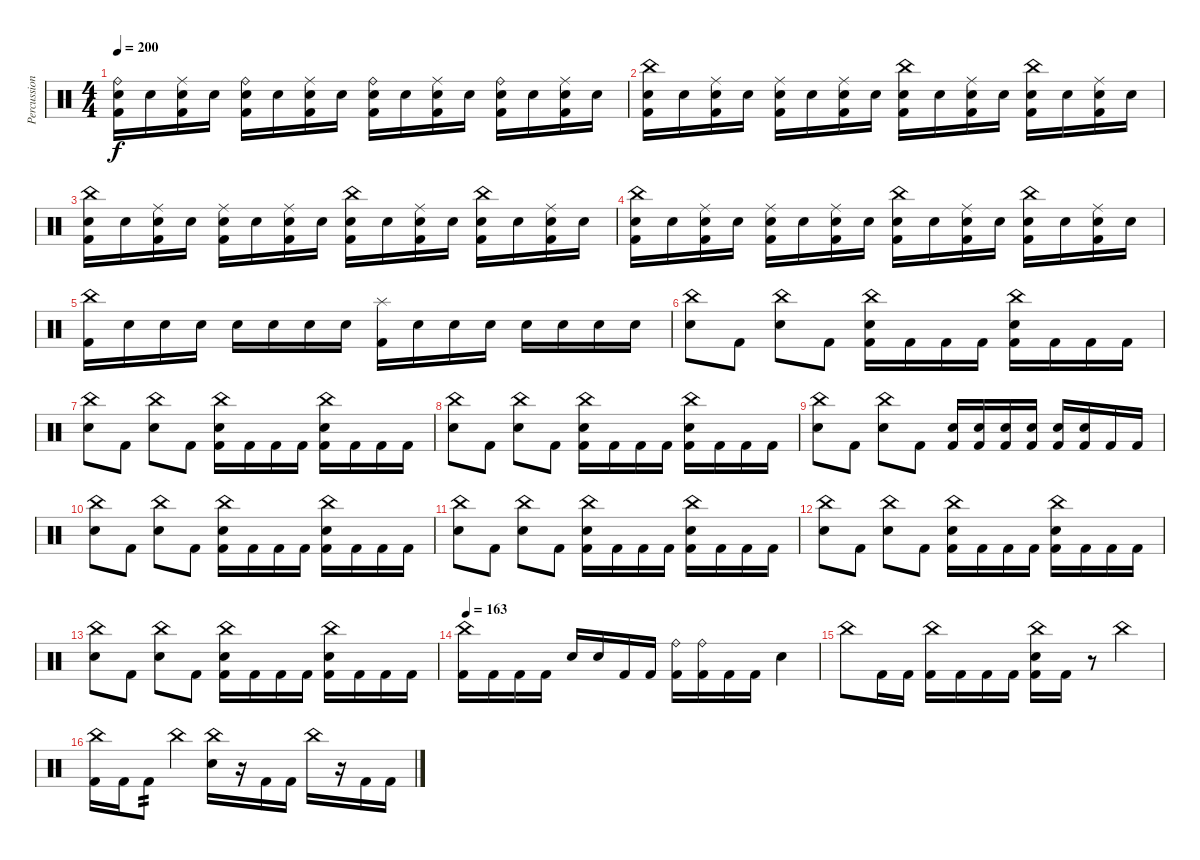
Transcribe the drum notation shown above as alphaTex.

\track ("Percussion" "Percussion") {instrument percussion}
\staff {score}
\articulation defaults
\ts (4 4)
\tempo 200
\clef neutral
\ks c
("Ride (bell)" "Electric Snare (hit)" "Kick (hit) 2").16{dy f} "Electric Snare (hit)".16 ("Ride (middle)" "Electric Snare (hit)" "Kick (hit) 2").16 "Electric Snare (hit)".16 ("Ride (bell)" "Electric Snare (hit)" "Kick (hit) 2").16 "Electric Snare (hit)".16 ("Ride (middle)" "Electric Snare (hit)" "Kick (hit) 2").16 "Electric Snare (hit)".16 ("Ride (bell)" "Electric Snare (hit)" "Kick (hit) 2").16 "Electric Snare (hit)".16 ("Ride (middle)" "Electric Snare (hit)" "Kick (hit) 2").16 "Electric Snare (hit)".16 ("Ride (bell)" "Electric Snare (hit)" "Kick (hit) 2").16 "Electric Snare (hit)".16 ("Ride (middle)" "Electric Snare (hit)" "Kick (hit) 2").16 "Electric Snare (hit)".16 |
("China (hit)" "Electric Snare (hit)" "Kick (hit) 2").16 "Electric Snare (hit)".16 ("Ride (middle)" "Electric Snare (hit)" "Kick (hit) 2").16 "Electric Snare (hit)".16 ("Ride (middle)" "Electric Snare (hit)" "Kick (hit) 2").16 "Electric Snare (hit)".16 ("Ride (middle)" "Electric Snare (hit)" "Kick (hit) 2").16 "Electric Snare (hit)".16 ("China (hit)" "Electric Snare (hit)" "Kick (hit) 2").16 "Electric Snare (hit)".16 ("Ride (middle)" "Electric Snare (hit)" "Kick (hit) 2").16 "Electric Snare (hit)".16 ("China (hit)" "Electric Snare (hit)" "Kick (hit) 2").16 "Electric Snare (hit)".16 ("Ride (middle)" "Electric Snare (hit)" "Kick (hit) 2").16 "Electric Snare (hit)".16 |
("China (hit)" "Electric Snare (hit)" "Kick (hit) 2").16 "Electric Snare (hit)".16 ("Ride (middle)" "Electric Snare (hit)" "Kick (hit) 2").16 "Electric Snare (hit)".16 ("Ride (middle)" "Electric Snare (hit)" "Kick (hit) 2").16 "Electric Snare (hit)".16 ("Ride (middle)" "Electric Snare (hit)" "Kick (hit) 2").16 "Electric Snare (hit)".16 ("China (hit)" "Electric Snare (hit)" "Kick (hit) 2").16 "Electric Snare (hit)".16 ("Ride (middle)" "Electric Snare (hit)" "Kick (hit) 2").16 "Electric Snare (hit)".16 ("China (hit)" "Electric Snare (hit)" "Kick (hit) 2").16 "Electric Snare (hit)".16 ("Ride (middle)" "Electric Snare (hit)" "Kick (hit) 2").16 "Electric Snare (hit)".16 |
("China (hit)" "Electric Snare (hit)" "Kick (hit) 2").16 "Electric Snare (hit)".16 ("Ride (middle)" "Electric Snare (hit)" "Kick (hit) 2").16 "Electric Snare (hit)".16 ("Ride (middle)" "Electric Snare (hit)" "Kick (hit) 2").16 "Electric Snare (hit)".16 ("Ride (middle)" "Electric Snare (hit)" "Kick (hit) 2").16 "Electric Snare (hit)".16 ("China (hit)" "Electric Snare (hit)" "Kick (hit) 2").16 "Electric Snare (hit)".16 ("Ride (middle)" "Electric Snare (hit)" "Kick (hit) 2").16 "Electric Snare (hit)".16 ("China (hit)" "Electric Snare (hit)" "Kick (hit) 2").16 "Electric Snare (hit)".16 ("Ride (middle)" "Electric Snare (hit)" "Kick (hit) 2").16 "Electric Snare (hit)".16 |
("China (hit)" "Kick (hit) 2").16 "Electric Snare (hit)".16 "Electric Snare (hit)".16 "Electric Snare (hit)".16 "Electric Snare (hit)".16 "Electric Snare (hit)".16 "Electric Snare (hit)".16 "Electric Snare (hit)".16 ("Splash (hit)" "Kick (hit) 2").16 "Electric Snare (hit)".16 "Electric Snare (hit)".16 "Electric Snare (hit)".16 "Electric Snare (hit)".16 "Electric Snare (hit)".16 "Electric Snare (hit)".16 "Electric Snare (hit)".16 |
("China (hit)" "Electric Snare (hit)").8 "Kick (hit) 2".8 ("China (hit)" "Electric Snare (hit)").8 "Kick (hit) 2".8 ("China (hit)" "Electric Snare (hit)" "Kick (hit) 2").16 "Kick (hit) 2".16 "Kick (hit) 2".16 "Kick (hit) 2".16 ("China (hit)" "Electric Snare (hit)" "Kick (hit) 2").16 "Kick (hit) 2".16 "Kick (hit) 2".16 "Kick (hit) 2".16 |
("China (hit)" "Electric Snare (hit)").8 "Kick (hit) 2".8 ("China (hit)" "Electric Snare (hit)").8 "Kick (hit) 2".8 ("China (hit)" "Electric Snare (hit)" "Kick (hit) 2").16 "Kick (hit) 2".16 "Kick (hit) 2".16 "Kick (hit) 2".16 ("China (hit)" "Electric Snare (hit)" "Kick (hit) 2").16 "Kick (hit) 2".16 "Kick (hit) 2".16 "Kick (hit) 2".16 |
("China (hit)" "Electric Snare (hit)").8 "Kick (hit) 2".8 ("China (hit)" "Electric Snare (hit)").8 "Kick (hit) 2".8 ("China (hit)" "Electric Snare (hit)" "Kick (hit) 2").16 "Kick (hit) 2".16 "Kick (hit) 2".16 "Kick (hit) 2".16 ("China (hit)" "Electric Snare (hit)" "Kick (hit) 2").16 "Kick (hit) 2".16 "Kick (hit) 2".16 "Kick (hit) 2".16 |
("China (hit)" "Electric Snare (hit)").8 "Kick (hit) 2".8 ("China (hit)" "Electric Snare (hit)").8 "Kick (hit) 2".8 ("Electric Snare (hit)" "Kick (hit) 2").16 ("Electric Snare (hit)" "Kick (hit) 2").16 ("Electric Snare (hit)" "Kick (hit) 2").16 ("Electric Snare (hit)" "Kick (hit) 2").16 ("Electric Snare (hit)" "Kick (hit) 2").16 ("Electric Snare (hit)" "Kick (hit) 2").16 "Kick (hit) 2".16 "Kick (hit) 2".16 |
("China (hit)" "Electric Snare (hit)").8 "Kick (hit) 2".8 ("China (hit)" "Electric Snare (hit)").8 "Kick (hit) 2".8 ("China (hit)" "Electric Snare (hit)" "Kick (hit) 2").16 "Kick (hit) 2".16 "Kick (hit) 2".16 "Kick (hit) 2".16 ("China (hit)" "Electric Snare (hit)" "Kick (hit) 2").16 "Kick (hit) 2".16 "Kick (hit) 2".16 "Kick (hit) 2".16 |
("China (hit)" "Electric Snare (hit)").8 "Kick (hit) 2".8 ("China (hit)" "Electric Snare (hit)").8 "Kick (hit) 2".8 ("China (hit)" "Electric Snare (hit)" "Kick (hit) 2").16 "Kick (hit) 2".16 "Kick (hit) 2".16 "Kick (hit) 2".16 ("China (hit)" "Electric Snare (hit)" "Kick (hit) 2").16 "Kick (hit) 2".16 "Kick (hit) 2".16 "Kick (hit) 2".16 |
("China (hit)" "Electric Snare (hit)").8 "Kick (hit) 2".8 ("China (hit)" "Electric Snare (hit)").8 "Kick (hit) 2".8 ("China (hit)" "Electric Snare (hit)" "Kick (hit) 2").16 "Kick (hit) 2".16 "Kick (hit) 2".16 "Kick (hit) 2".16 ("China (hit)" "Electric Snare (hit)" "Kick (hit) 2").16 "Kick (hit) 2".16 "Kick (hit) 2".16 "Kick (hit) 2".16 |
("China (hit)" "Electric Snare (hit)").8 "Kick (hit) 2".8 ("China (hit)" "Electric Snare (hit)").8 "Kick (hit) 2".8 ("China (hit)" "Electric Snare (hit)" "Kick (hit) 2").16 "Kick (hit) 2".16 "Kick (hit) 2".16 "Kick (hit) 2".16 ("China (hit)" "Electric Snare (hit)" "Kick (hit) 2").16 "Kick (hit) 2".16 "Kick (hit) 2".16 "Kick (hit) 2".16 |
\tempo 163
("China (hit)" "Kick (hit) 2").16 "Kick (hit) 2".16 "Kick (hit) 2".16 "Kick (hit) 2".16 "Electric Snare (hit)".16 "Electric Snare (hit)".16 "Kick (hit) 2".16 "Kick (hit) 2".16 ("Ride (bell)" "Kick (hit) 2").16 ("Ride (bell)" "Kick (hit) 2").16 "Kick (hit) 2".16 "Kick (hit) 2".16 "Electric Snare (hit)".4 |
"China (hit)".8 "Kick (hit) 2".16 "Kick (hit) 2".16 ("China (hit)" "Kick (hit) 2").16 "Kick (hit) 2".16 "Kick (hit) 2".16 "Kick (hit) 2".16 ("China (hit)" "Electric Snare (hit)" "Kick (hit) 2").16 "Kick (hit) 2".16 r.8 "China (hit)".4 |
("China (hit)" "Kick (hit) 2").16 "Kick (hit) 2".16 "Kick (hit) 2".8{tp 2} "China (hit)".4 ("China (hit)" "Electric Snare (hit)").16 r.16 "Kick (hit) 2".16 "Kick (hit) 2".16 "China (hit)".16 r.16 "Kick (hit) 2".16 "Kick (hit) 2".16
